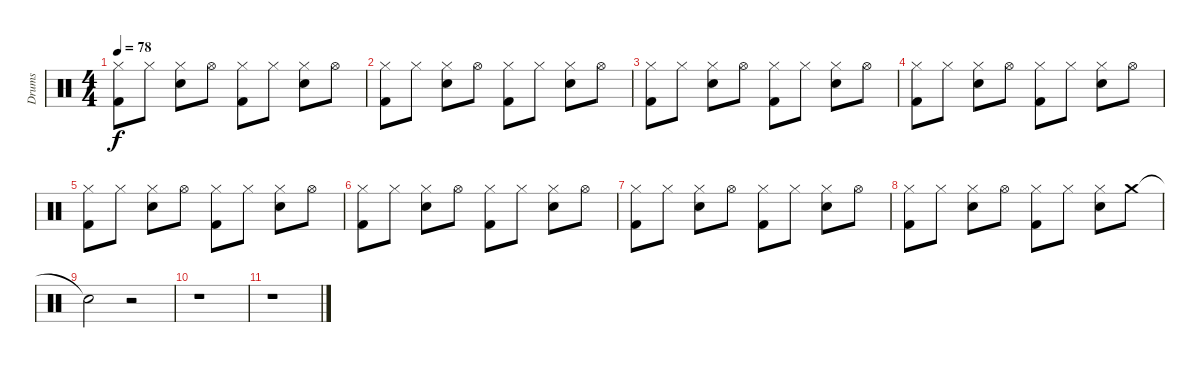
\track ("Drums" "Drums") {instrument percussion}
\staff {score}
\articulation defaults
\ts (4 4)
\tempo 78
\clef neutral
\ks c
("Hi-Hat (closed)" "Kick (hit) 2").8{dy f} "Hi-Hat (closed)".8 ("Hi-Hat (closed)" "Snare (hit) 2").8 "Hi-Hat (open)".8 ("Hi-Hat (closed)" "Kick (hit) 2").8 "Hi-Hat (closed)".8 ("Hi-Hat (closed)" "Snare (hit) 2").8 "Hi-Hat (open)".8 |
("Hi-Hat (closed)" "Kick (hit) 2").8 "Hi-Hat (closed)".8 ("Hi-Hat (closed)" "Snare (hit) 2").8 "Hi-Hat (open)".8 ("Hi-Hat (closed)" "Kick (hit) 2").8 "Hi-Hat (closed)".8 ("Hi-Hat (closed)" "Snare (hit) 2").8 "Hi-Hat (open)".8 |
("Hi-Hat (closed)" "Kick (hit) 2").8 "Hi-Hat (closed)".8 ("Hi-Hat (closed)" "Snare (hit) 2").8 "Hi-Hat (open)".8 ("Hi-Hat (closed)" "Kick (hit) 2").8 "Hi-Hat (closed)".8 ("Hi-Hat (closed)" "Snare (hit) 2").8 "Hi-Hat (open)".8 |
("Hi-Hat (closed)" "Kick (hit) 2").8 "Hi-Hat (closed)".8 ("Hi-Hat (closed)" "Snare (hit) 2").8 "Hi-Hat (open)".8 ("Hi-Hat (closed)" "Kick (hit) 2").8 "Hi-Hat (closed)".8 ("Hi-Hat (closed)" "Snare (hit) 2").8 "Hi-Hat (open)".8 |
("Hi-Hat (closed)" "Kick (hit) 2").8 "Hi-Hat (closed)".8 ("Hi-Hat (closed)" "Snare (hit) 2").8 "Hi-Hat (open)".8 ("Hi-Hat (closed)" "Kick (hit) 2").8 "Hi-Hat (closed)".8 ("Hi-Hat (closed)" "Snare (hit) 2").8 "Hi-Hat (open)".8 |
("Hi-Hat (closed)" "Kick (hit) 2").8 "Hi-Hat (closed)".8 ("Hi-Hat (closed)" "Snare (hit) 2").8 "Hi-Hat (open)".8 ("Hi-Hat (closed)" "Kick (hit) 2").8 "Hi-Hat (closed)".8 ("Hi-Hat (closed)" "Snare (hit) 2").8 "Hi-Hat (open)".8 |
("Hi-Hat (closed)" "Kick (hit) 2").8 "Hi-Hat (closed)".8 ("Hi-Hat (closed)" "Snare (hit) 2").8 "Hi-Hat (open)".8 ("Hi-Hat (closed)" "Kick (hit) 2").8 "Hi-Hat (closed)".8 ("Hi-Hat (closed)" "Snare (hit) 2").8 "Hi-Hat (open)".8 |
("Hi-Hat (closed)" "Kick (hit) 2").8 "Hi-Hat (closed)".8 ("Hi-Hat (closed)" "Snare (hit) 2").8 "Hi-Hat (open)".8 ("Hi-Hat (closed)" "Kick (hit) 2").8 "Hi-Hat (closed)".8 ("Hi-Hat (closed)" "Snare (hit) 2").8 "Crash medium (hit)".8 |
"Snare (hit)"{t}.2 r.2 |
r.1 |
r.1
